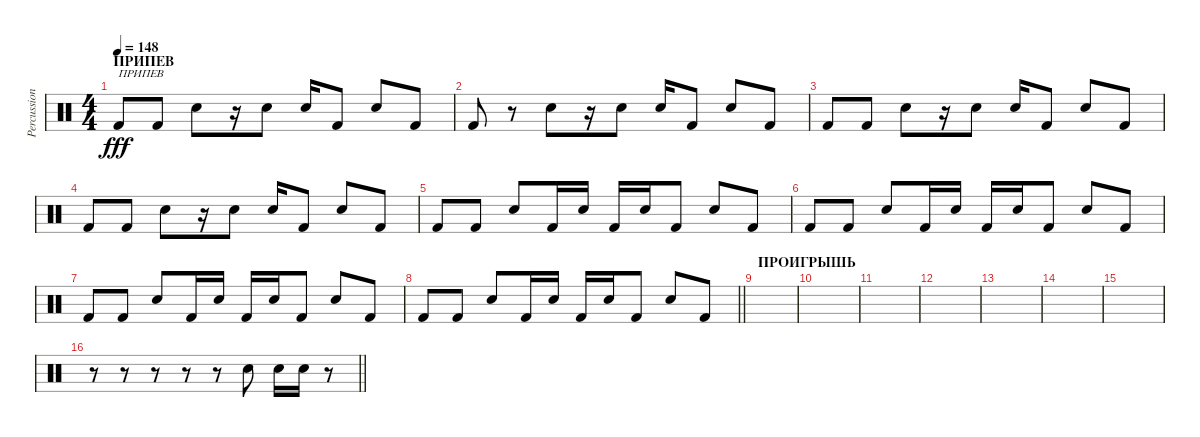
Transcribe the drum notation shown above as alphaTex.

\track ("Percussion" "Percussion") {instrument percussion}
\staff {score}
\articulation defaults
\ts (4 4)
\section ("" "ПРИПЕВ")
\tempo 148
\clef neutral
\ks c "Kick (hit) 2".8{txt "ПРИПЕВ" dy fff} "Kick (hit) 2".8 "Electric Snare (hit)".8
r.16 "Electric Snare (hit)".8 "Electric Snare (hit)".16 "Kick (hit) 2".8 "Electric Snare (hit)".8 "Kick (hit) 2".8 |
"Kick (hit) 2".8 r.8 "Electric Snare (hit)".8 r.16 "Electric Snare (hit)".8 "Electric Snare (hit)".16 "Kick (hit) 2".8 "Electric Snare (hit)".8 "Kick (hit) 2".8 |
"Kick (hit) 2".8 "Kick (hit) 2".8 "Electric Snare (hit)".8 r.16 "Electric Snare (hit)".8 "Electric Snare (hit)".16 "Kick (hit) 2".8 "Electric Snare (hit)".8 "Kick (hit) 2".8 |
"Kick (hit) 2".8 "Kick (hit) 2".8 "Electric Snare (hit)".8 r.16 "Electric Snare (hit)".8 "Electric Snare (hit)".16 "Kick (hit) 2".8 "Electric Snare (hit)".8 "Kick (hit) 2".8 |
"Kick (hit) 2".8 "Kick (hit) 2".8 "Electric Snare (hit)".8 "Kick (hit) 2".16 "Electric Snare (hit)".16 "Kick (hit) 2".16 "Electric Snare (hit)".16 "Kick (hit) 2".8 "Electric Snare (hit)".8 "Kick (hit) 2".8 |
"Kick (hit) 2".8 "Kick (hit) 2".8 "Electric Snare (hit)".8 "Kick (hit) 2".16 "Electric Snare (hit)".16 "Kick (hit) 2".16 "Electric Snare (hit)".16 "Kick (hit) 2".8 "Electric Snare (hit)".8 "Kick (hit) 2".8 |
"Kick (hit) 2".8 "Kick (hit) 2".8 "Electric Snare (hit)".8 "Kick (hit) 2".16 "Electric Snare (hit)".16 "Kick (hit) 2".16 "Electric Snare (hit)".16 "Kick (hit) 2".8 "Electric Snare (hit)".8 "Kick (hit) 2".8 |
\barLineRight lightlight "Kick (hit) 2".8 "Kick (hit) 2".8 "Electric Snare (hit)".8 "Kick (hit) 2".16 "Electric Snare (hit)".16 "Kick (hit) 2".16 "Electric Snare (hit)".16 "Kick (hit) 2".8 "Electric Snare (hit)".8 "Kick (hit) 2".8
|
\section ("" "ПРОИГРЫШЬ")
|
|
|
|
|
|
|
\barLineRight lightlight
r.8 r.8 r.8 r.8 r.8 "Electric Snare (hit)".8 "Electric Snare (hit)".16 "Electric Snare (hit)".16 r.8
